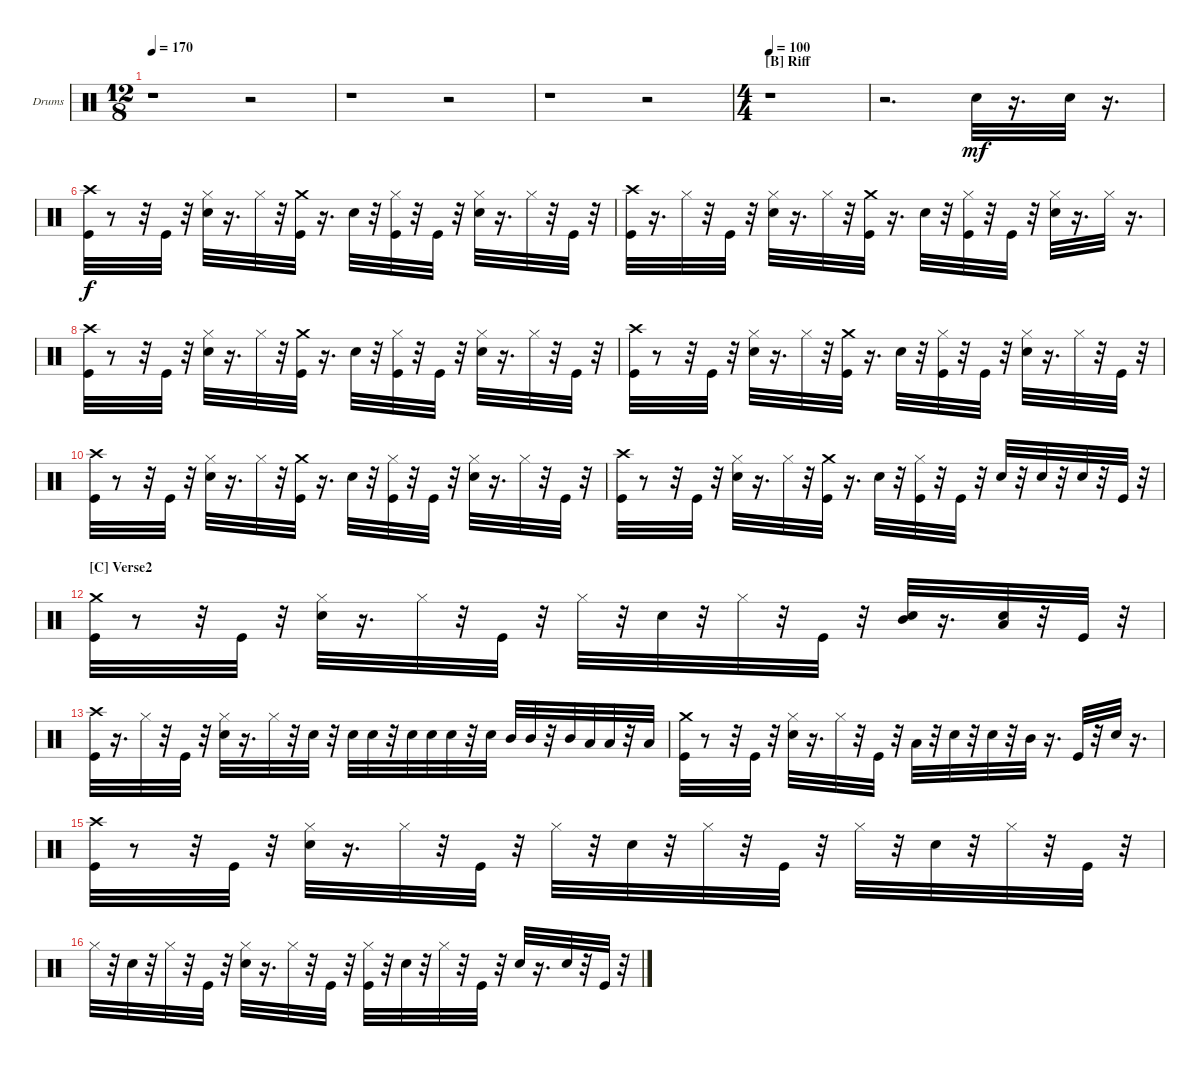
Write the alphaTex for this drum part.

\bracketExtendMode nobrackets
\firstSystemTrackNameOrientation horizontal
\otherSystemsTrackNameOrientation horizontal
\defaultBarNumberDisplay FirstOfSystem
\track ("Drumkit" "Drums") {instrument percussion}
\staff {score}
\articulation defaults
\ts (12 8)
\tempo 170
\clef neutral
\ks c
r.1{dy mf} r.2 |
r.1 r.2 |
r.1 r.2 |
\ts (4 4)
\beaming (8 2 2 2 2)
\section ("B" "Riff")
\tempo 100
r.1 |
r.2{d} "Snare (hit) 2".32 r.16{d} "Snare (hit) 2".32 r.16{d} |
("Kick (hit)" "Crash high (hit)").32{dy f} r.8 r.32 "Kick (hit)".32 r.32 ("Hi-Hat (closed)" "Snare (hit) 2").32 r.16{d} "Hi-Hat (closed)".32 r.32 ("Crash medium (hit)" "Kick (hit)").32 r.16{d} "Snare (hit) 2".32 r.32 ("Hi-Hat (closed)" "Kick (hit)").32 r.32 "Kick (hit)".32 r.32 ("Hi-Hat (closed)" "Snare (hit) 2").32 r.16{d} "Hi-Hat (closed)".32 r.32 "Kick (hit)".32 r.32 |
\scale
0.337326 ("Crash high (hit)" "Kick (hit)").32 r.16{d} "Hi-Hat (closed)".32 r.32 "Kick (hit)".32 r.32 ("Hi-Hat (closed)" "Snare (hit) 2").32 r.16{d} "Hi-Hat (closed)".32 r.32 ("Crash medium (hit)" "Kick (hit)").32 r.16{d} "Snare (hit) 2".32 r.32 ("Hi-Hat (closed)" "Kick (hit)").32 r.32 "Kick (hit)".32 r.32 ("Hi-Hat (closed)" "Snare (hit) 2").32 r.16{d} "Hi-Hat (closed)".32 r.16{d} |
\scale
0.350254 ("Kick (hit)" "Crash high (hit)").32 r.8 r.32 "Kick (hit)".32 r.32 ("Hi-Hat (closed)" "Snare (hit) 2").32 r.16{d} "Hi-Hat (closed)".32 r.32 ("Crash medium (hit)" "Kick (hit)").32 r.16{d} "Snare (hit) 2".32 r.32 ("Hi-Hat (closed)" "Kick (hit)").32 r.32 "Kick (hit)".32 r.32 ("Hi-Hat (closed)" "Snare (hit) 2").32 r.16{d} "Hi-Hat (closed)".32 r.32 "Kick (hit)".32 r.32 |
\scale
0.311683 ("Kick (hit)" "Crash high (hit)").32 r.8 r.32 "Kick (hit)".32 r.32 ("Hi-Hat (closed)" "Snare (hit) 2").32 r.16{d} "Hi-Hat (closed)".32 r.32 ("Crash medium (hit)" "Kick (hit)").32 r.16{d} "Snare (hit) 2".32 r.32 ("Hi-Hat (closed)" "Kick (hit)").32 r.32 "Kick (hit)".32 r.32 ("Hi-Hat (closed)" "Snare (hit) 2").32 r.16{d} "Hi-Hat (closed)".32 r.32 "Kick (hit)".32 r.32 |
("Kick (hit)" "Crash high (hit)").32 r.8 r.32 "Kick (hit)".32 r.32 ("Hi-Hat (closed)" "Snare (hit) 2").32 r.16{d} "Hi-Hat (closed)".32 r.32 ("Crash medium (hit)" "Kick (hit)").32 r.16{d} "Snare (hit) 2".32 r.32 ("Hi-Hat (closed)" "Kick (hit)").32 r.32 "Kick (hit)".32 r.32 ("Hi-Hat (closed)" "Snare (hit) 2").32 r.16{d} "Hi-Hat (closed)".32 r.32 "Kick (hit)".32 r.32 |
("Kick (hit)" "Crash high (hit)").32 r.8 r.32 "Kick (hit)".32 r.32 ("Hi-Hat (closed)" "Snare (hit) 2").32 r.16{d} "Hi-Hat (closed)".32 r.32 ("Crash medium (hit)" "Kick (hit)").32 r.16{d} "Snare (hit) 2".32 r.32 ("Hi-Hat (closed)" "Kick (hit)").32 r.32 "Kick (hit)".32 r.32 "Snare (hit) 2".32 r.32 "Snare (hit) 2".32 r.32 "Snare (hit) 2".32 r.32 "Kick (hit)".32 r.32 |
\section ("C" "Verse2")
("Kick (hit)" "Crash medium (hit)").32 r.8 r.32 "Kick (hit)".32 r.32 ("Hi-Hat (closed)" "Snare (hit) 2").32 r.16{d} "Hi-Hat (closed)".32 r.32 "Kick (hit)".32 r.32 "Hi-Hat (closed)".32 r.32 "Snare (hit) 2".32 r.32 "Hi-Hat (closed)".32 r.32 "Kick (hit)".32 r.32 ("Mid Tom (hit)" "Snare (hit) 2").32 r.16{d} ("Snare (hit) 2" "Low Tom (hit)").32 r.32 "Kick (hit)".32 r.32 |
("Kick (hit)" "Crash high (hit)").32 r.16{d} "Hi-Hat (closed)".32 r.32 "Kick (hit)".32 r.32 ("Snare (hit) 2" "Hi-Hat (closed)").32 r.16{d} "Hi-Hat (closed)".32 r.32 "Snare (hit) 2".32 r.32 "Snare (hit) 2".32 "Snare (hit) 2".32 r.32 "Snare (hit) 2".32 "Snare (hit) 2".32 "Snare (hit) 2".32 r.32 "Snare (hit) 2".32 "Mid Tom (hit)".32 "Mid Tom (hit)".32 r.32 "Mid Tom (hit)".32 "Low Tom (hit)".32 "Low Tom (hit)".32 r.32 "Low Tom (hit)".32 |
("Crash medium (hit)" "Kick (hit)").32 r.8 r.32 "Kick (hit)".32 r.32 ("Hi-Hat (closed)" "Snare (hit) 2").32 r.16{d} "Hi-Hat (closed)".32 r.32 "Kick (hit)".32 r.32 "Low Tom (hit)".32 r.32 "Snare (hit) 2".32 r.32 "Snare (hit) 2".32 r.32 "Mid Tom (hit)".32 r.16{d} "Kick (hit)".32 r.32 "Snare (hit) 2".32 r.16{d} |
\scale
0.476028 ("Kick (hit)" "Crash high (hit)").32 r.8 r.32 "Kick (hit)".32 r.32 ("Snare (hit) 2" "Hi-Hat (closed)").32 r.16{d} "Hi-Hat (closed)".32 r.32 "Kick (hit)".32 r.32 "Hi-Hat (closed)".32 r.32 "Snare (hit) 2".32 r.32 "Hi-Hat (closed)".32 r.32 "Kick (hit)".32 r.32 "Hi-Hat (closed)".32 r.32 "Snare (hit) 2".32 r.32 "Hi-Hat (closed)".32 r.32 "Kick (hit)".32 r.32 |
\scale
0.326577 "Hi-Hat (closed)".32 r.32 "Snare (hit) 2".32 r.32 "Hi-Hat (closed)".32 r.32 "Kick (hit)".32 r.32 ("Snare (hit) 2" "Hi-Hat (closed)").32 r.16{d} "Hi-Hat (closed)".32 r.32 "Kick (hit)".32 r.32 ("Kick (hit)" "Hi-Hat (closed)").32 r.32 "Snare (hit) 2".32 r.32 "Hi-Hat (closed)".32 r.32 "Kick (hit)".32 r.32 "Snare (hit) 2".32 r.16{d} "Snare (hit) 2".32 r.32 "Kick (hit)".32 r.32
